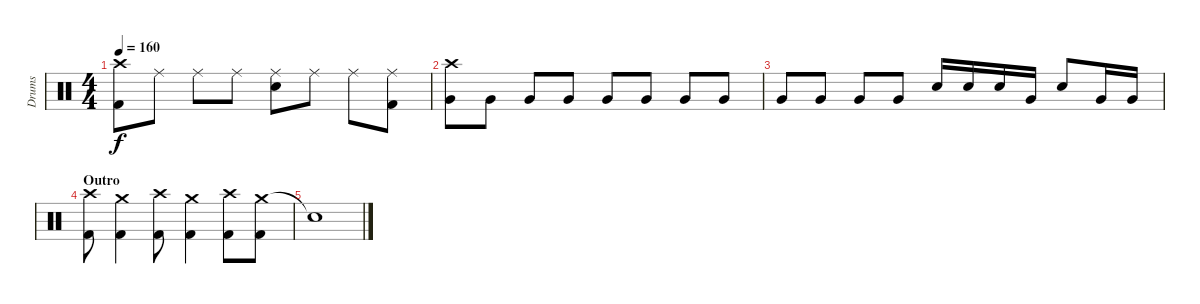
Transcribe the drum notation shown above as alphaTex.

\track ("Drums" "Drums") {instrument percussion}
\staff {score}
\articulation defaults
\ts (4 4)
\tempo 160
\clef neutral
\ks c
("Crash high (hit)" "Kick (hit) 2").8{dy f} "Ride (middle)".8 "Ride (middle)".8 "Ride (middle)".8 ("Ride (middle)" "Snare (hit) 2").8 "Ride (middle)".8 "Ride (middle)".8 ("Ride (middle)" "Kick (hit) 2").8 |
("Crash high (hit)" "Very Low Tom (hit)").8 "Very Low Tom (hit)".8 "Very Low Tom (hit)".8 "Very Low Tom (hit)".8 "Very Low Tom (hit)".8 "Very Low Tom (hit)".8 "Very Low Tom (hit)".8 "Very Low Tom (hit)".8 |
"Very Low Tom (hit)".8 "Very Low Tom (hit)".8 "Very Low Tom (hit)".8 "Very Low Tom (hit)".8 "Snare (hit) 2".16 "Snare (hit) 2".16 "Snare (hit) 2".16 "Very Low Tom (hit)".16 "Snare (hit) 2".8 "Very Low Tom (hit)".16 "Very Low Tom (hit)".16 |
\section ("" "Outro")
("Crash high (hit)" "Kick (hit) 2").8 ("Crash medium (hit)" "Kick (hit) 2").4 ("Crash high (hit)" "Kick (hit) 2").8 ("Crash medium (hit)" "Kick (hit) 2").4 ("Crash high (hit)" "Kick (hit) 2").8 ("Crash medium (hit)" "Kick (hit) 2").8 |
"Snare (hit)"{t}.1
